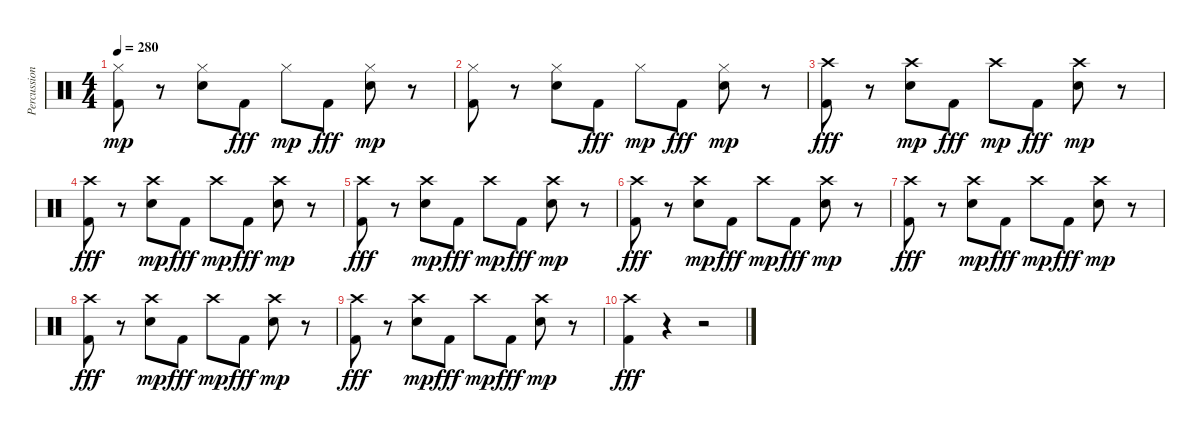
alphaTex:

\track ("Percussion" "Percussion") {instrument percussion}
\staff {score}
\articulation defaults
\ts (4 4)
\tempo 280
\clef neutral
\ks c
("Kick (hit) 2" "Hi-Hat (closed)").8{dy mp} r.8 ("Electric Snare (hit)" "Hi-Hat (closed)").8 "Kick (hit) 2".8{dy fff} "Hi-Hat (closed)".8{dy mp} "Kick (hit) 2".8{dy fff} ("Electric Snare (hit)" "Hi-Hat (closed)").8{dy mp} r.8 |
("Kick (hit) 2" "Hi-Hat (closed)").8 r.8 ("Electric Snare (hit)" "Hi-Hat (closed)").8 "Kick (hit) 2".8{dy fff} "Hi-Hat (closed)".8{dy mp} "Kick (hit) 2".8{dy fff} ("Electric Snare (hit)" "Hi-Hat (closed)").8{dy mp} r.8 |
("Kick (hit) 2" "Crash high (hit)").8{dy fff} r.8 ("Electric Snare (hit)" "Crash high (hit)").8{dy mp} "Kick (hit) 2".8{dy fff} "Crash high (hit)".8{dy mp} "Kick (hit) 2".8{dy fff} ("Electric Snare (hit)" "Crash high (hit)").8{dy mp} r.8 |
("Kick (hit) 2" "Crash high (hit)").8{dy fff} r.8 ("Electric Snare (hit)" "Crash high (hit)").8{dy mp} "Kick (hit) 2".8{dy fff} "Crash high (hit)".8{dy mp} "Kick (hit) 2".8{dy fff} ("Electric Snare (hit)" "Crash high (hit)").8{dy mp} r.8 |
("Kick (hit) 2" "Crash high (hit)").8{dy fff} r.8 ("Electric Snare (hit)" "Crash high (hit)").8{dy mp} "Kick (hit) 2".8{dy fff} "Crash high (hit)".8{dy mp} "Kick (hit) 2".8{dy fff} ("Electric Snare (hit)" "Crash high (hit)").8{dy mp} r.8 |
("Kick (hit) 2" "Crash high (hit)").8{dy fff} r.8 ("Electric Snare (hit)" "Crash high (hit)").8{dy mp} "Kick (hit) 2".8{dy fff} "Crash high (hit)".8{dy mp} "Kick (hit) 2".8{dy fff} ("Electric Snare (hit)" "Crash high (hit)").8{dy mp} r.8 |
("Kick (hit) 2" "Crash high (hit)").8{dy fff} r.8 ("Electric Snare (hit)" "Crash high (hit)").8{dy mp} "Kick (hit) 2".8{dy fff} "Crash high (hit)".8{dy mp} "Kick (hit) 2".8{dy fff} ("Electric Snare (hit)" "Crash high (hit)").8{dy mp} r.8 |
("Kick (hit) 2" "Crash high (hit)").8{dy fff} r.8 ("Electric Snare (hit)" "Crash high (hit)").8{dy mp} "Kick (hit) 2".8{dy fff} "Crash high (hit)".8{dy mp} "Kick (hit) 2".8{dy fff} ("Electric Snare (hit)" "Crash high (hit)").8{dy mp} r.8 |
("Kick (hit) 2" "Crash high (hit)").8{dy fff} r.8 ("Electric Snare (hit)" "Crash high (hit)").8{dy mp} "Kick (hit) 2".8{dy fff} "Crash high (hit)".8{dy mp} "Kick (hit) 2".8{dy fff} ("Electric Snare (hit)" "Crash high (hit)").8{dy mp} r.8 |
("Kick (hit) 2" "Crash high (hit)").4{dy fff} r.4 r.2
